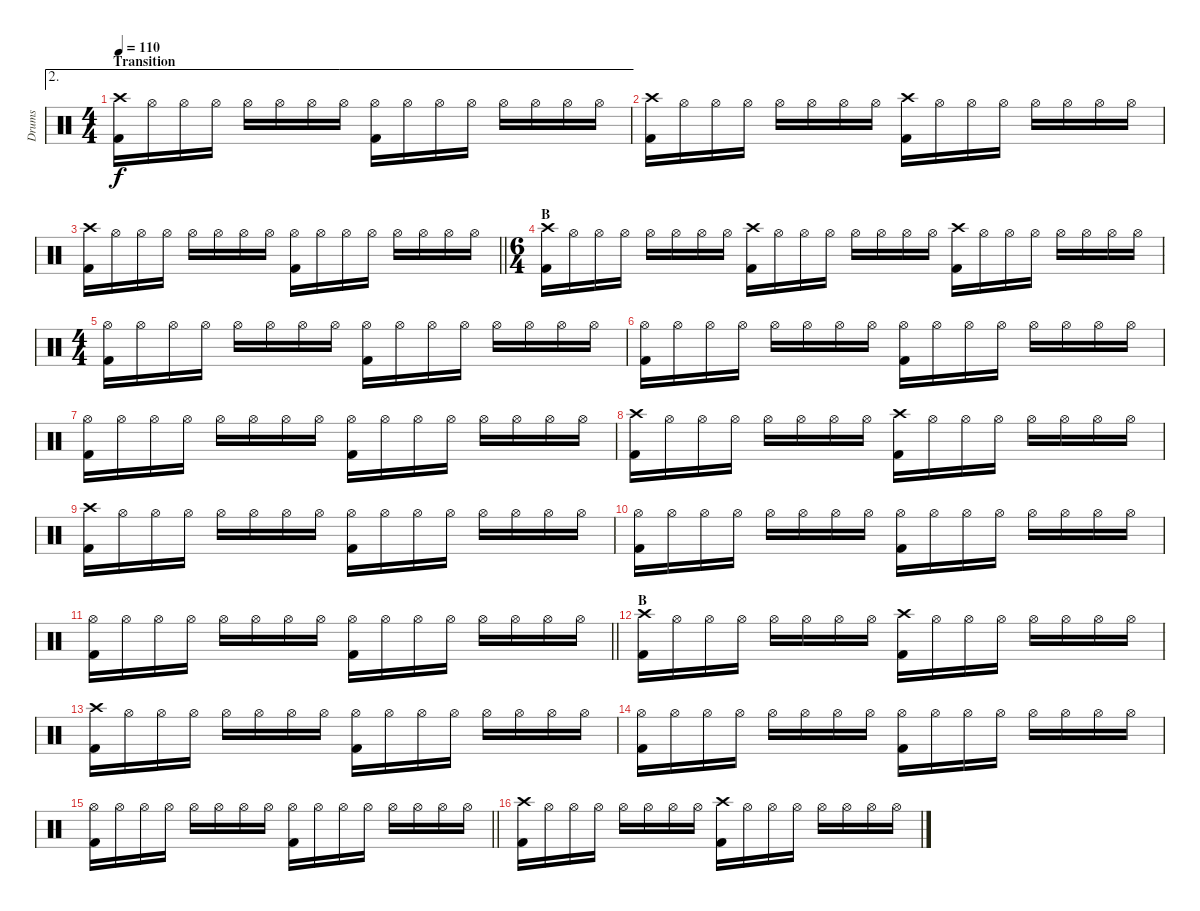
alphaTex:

\track ("Drums" "Drums") {instrument percussion}
\staff {score}
\articulation defaults
\ae 2
\ts (4 4)
\section ("" "Transition")
\tempo 110
\clef neutral
\ks c
("Crash high (hit)" "Kick (hit) 2").16{dy f} "Hi-Hat (open)".16 "Hi-Hat (open)".16 "Hi-Hat (open)".16 "Hi-Hat (open)".16 "Hi-Hat (open)".16 "Hi-Hat (open)".16 "Hi-Hat (open)".16 ("Hi-Hat (open)" "Kick (hit) 2").16 "Hi-Hat (open)".16 "Hi-Hat (open)".16 "Hi-Hat (open)".16 "Hi-Hat (open)".16 "Hi-Hat (open)".16 "Hi-Hat (open)".16 "Hi-Hat (open)".16 |
("Crash high (hit)" "Kick (hit) 2").16 "Hi-Hat (open)".16 "Hi-Hat (open)".16 "Hi-Hat (open)".16 "Hi-Hat (open)".16 "Hi-Hat (open)".16 "Hi-Hat (open)".16 "Hi-Hat (open)".16 ("Crash high (hit)" "Kick (hit) 2").16 "Hi-Hat (open)".16 "Hi-Hat (open)".16 "Hi-Hat (open)".16 "Hi-Hat (open)".16 "Hi-Hat (open)".16 "Hi-Hat (open)".16 "Hi-Hat (open)".16 |
\barLineRight lightlight
("Crash high (hit)" "Kick (hit) 2").16 "Hi-Hat (open)".16 "Hi-Hat (open)".16 "Hi-Hat (open)".16 "Hi-Hat (open)".16 "Hi-Hat (open)".16 "Hi-Hat (open)".16 "Hi-Hat (open)".16 ("Hi-Hat (open)" "Kick (hit) 2").16 "Hi-Hat (open)".16 "Hi-Hat (open)".16 "Hi-Hat (open)".16 "Hi-Hat (open)".16 "Hi-Hat (open)".16 "Hi-Hat (open)".16 "Hi-Hat (open)".16 |
\ts (6 4)
\section ("" "B")
("Crash high (hit)" "Kick (hit) 2").16 "Hi-Hat (open)".16 "Hi-Hat (open)".16 "Hi-Hat (open)".16 "Hi-Hat (open)".16 "Hi-Hat (open)".16 "Hi-Hat (open)".16 "Hi-Hat (open)".16 ("Crash high (hit)" "Kick (hit) 2").16 "Hi-Hat (open)".16 "Hi-Hat (open)".16 "Hi-Hat (open)".16 "Hi-Hat (open)".16 "Hi-Hat (open)".16 "Hi-Hat (open)".16 "Hi-Hat (open)".16 ("Crash high (hit)" "Kick (hit) 2").16 "Hi-Hat (open)".16 "Hi-Hat (open)".16 "Hi-Hat (open)".16 "Hi-Hat (open)".16 "Hi-Hat (open)".16 "Hi-Hat (open)".16 "Hi-Hat (open)".16 |
\ts (4 4)
("Hi-Hat (open)" "Kick (hit) 2").16 "Hi-Hat (open)".16 "Hi-Hat (open)".16 "Hi-Hat (open)".16 "Hi-Hat (open)".16 "Hi-Hat (open)".16 "Hi-Hat (open)".16 "Hi-Hat (open)".16 ("Hi-Hat (open)" "Kick (hit) 2").16 "Hi-Hat (open)".16 "Hi-Hat (open)".16 "Hi-Hat (open)".16 "Hi-Hat (open)".16 "Hi-Hat (open)".16 "Hi-Hat (open)".16 "Hi-Hat (open)".16 |
("Hi-Hat (open)" "Kick (hit) 2").16 "Hi-Hat (open)".16 "Hi-Hat (open)".16 "Hi-Hat (open)".16 "Hi-Hat (open)".16 "Hi-Hat (open)".16 "Hi-Hat (open)".16 "Hi-Hat (open)".16 ("Hi-Hat (open)" "Kick (hit) 2").16 "Hi-Hat (open)".16 "Hi-Hat (open)".16 "Hi-Hat (open)".16 "Hi-Hat (open)".16 "Hi-Hat (open)".16 "Hi-Hat (open)".16 "Hi-Hat (open)".16 |
("Hi-Hat (open)" "Kick (hit) 2").16 "Hi-Hat (open)".16 "Hi-Hat (open)".16 "Hi-Hat (open)".16 "Hi-Hat (open)".16 "Hi-Hat (open)".16 "Hi-Hat (open)".16 "Hi-Hat (open)".16 ("Hi-Hat (open)" "Kick (hit) 2").16 "Hi-Hat (open)".16 "Hi-Hat (open)".16 "Hi-Hat (open)".16 "Hi-Hat (open)".16 "Hi-Hat (open)".16 "Hi-Hat (open)".16 "Hi-Hat (open)".16 |
("Crash high (hit)" "Kick (hit) 2").16 "Hi-Hat (open)".16 "Hi-Hat (open)".16 "Hi-Hat (open)".16 "Hi-Hat (open)".16 "Hi-Hat (open)".16 "Hi-Hat (open)".16 "Hi-Hat (open)".16 ("Crash high (hit)" "Kick (hit) 2").16 "Hi-Hat (open)".16 "Hi-Hat (open)".16 "Hi-Hat (open)".16 "Hi-Hat (open)".16 "Hi-Hat (open)".16 "Hi-Hat (open)".16 "Hi-Hat (open)".16 |
("Crash high (hit)" "Kick (hit) 2").16 "Hi-Hat (open)".16 "Hi-Hat (open)".16 "Hi-Hat (open)".16 "Hi-Hat (open)".16 "Hi-Hat (open)".16 "Hi-Hat (open)".16 "Hi-Hat (open)".16 ("Hi-Hat (open)" "Kick (hit) 2").16 "Hi-Hat (open)".16 "Hi-Hat (open)".16 "Hi-Hat (open)".16 "Hi-Hat (open)".16 "Hi-Hat (open)".16 "Hi-Hat (open)".16 "Hi-Hat (open)".16 |
("Hi-Hat (open)" "Kick (hit) 2").16 "Hi-Hat (open)".16 "Hi-Hat (open)".16 "Hi-Hat (open)".16 "Hi-Hat (open)".16 "Hi-Hat (open)".16 "Hi-Hat (open)".16 "Hi-Hat (open)".16 ("Hi-Hat (open)" "Kick (hit) 2").16 "Hi-Hat (open)".16 "Hi-Hat (open)".16 "Hi-Hat (open)".16 "Hi-Hat (open)".16 "Hi-Hat (open)".16 "Hi-Hat (open)".16 "Hi-Hat (open)".16 |
\barLineRight lightlight
("Hi-Hat (open)" "Kick (hit) 2").16 "Hi-Hat (open)".16 "Hi-Hat (open)".16 "Hi-Hat (open)".16 "Hi-Hat (open)".16 "Hi-Hat (open)".16 "Hi-Hat (open)".16 "Hi-Hat (open)".16 ("Hi-Hat (open)" "Kick (hit) 2").16 "Hi-Hat (open)".16 "Hi-Hat (open)".16 "Hi-Hat (open)".16 "Hi-Hat (open)".16 "Hi-Hat (open)".16 "Hi-Hat (open)".16 "Hi-Hat (open)".16 |
\section ("" "B")
("Crash high (hit)" "Kick (hit) 2").16 "Hi-Hat (open)".16 "Hi-Hat (open)".16 "Hi-Hat (open)".16 "Hi-Hat (open)".16 "Hi-Hat (open)".16 "Hi-Hat (open)".16 "Hi-Hat (open)".16 ("Crash high (hit)" "Kick (hit) 2").16 "Hi-Hat (open)".16 "Hi-Hat (open)".16 "Hi-Hat (open)".16 "Hi-Hat (open)".16 "Hi-Hat (open)".16 "Hi-Hat (open)".16 "Hi-Hat (open)".16 |
("Crash high (hit)" "Kick (hit) 2").16 "Hi-Hat (open)".16 "Hi-Hat (open)".16 "Hi-Hat (open)".16 "Hi-Hat (open)".16 "Hi-Hat (open)".16 "Hi-Hat (open)".16 "Hi-Hat (open)".16 ("Hi-Hat (open)" "Kick (hit) 2").16 "Hi-Hat (open)".16 "Hi-Hat (open)".16 "Hi-Hat (open)".16 "Hi-Hat (open)".16 "Hi-Hat (open)".16 "Hi-Hat (open)".16 "Hi-Hat (open)".16 |
("Hi-Hat (open)" "Kick (hit) 2").16 "Hi-Hat (open)".16 "Hi-Hat (open)".16 "Hi-Hat (open)".16 "Hi-Hat (open)".16 "Hi-Hat (open)".16 "Hi-Hat (open)".16 "Hi-Hat (open)".16 ("Hi-Hat (open)" "Kick (hit) 2").16 "Hi-Hat (open)".16 "Hi-Hat (open)".16 "Hi-Hat (open)".16 "Hi-Hat (open)".16 "Hi-Hat (open)".16 "Hi-Hat (open)".16 "Hi-Hat (open)".16 |
\barLineRight lightlight
("Hi-Hat (open)" "Kick (hit) 2").16 "Hi-Hat (open)".16 "Hi-Hat (open)".16 "Hi-Hat (open)".16 "Hi-Hat (open)".16 "Hi-Hat (open)".16 "Hi-Hat (open)".16 "Hi-Hat (open)".16 ("Hi-Hat (open)" "Kick (hit) 2").16 "Hi-Hat (open)".16 "Hi-Hat (open)".16 "Hi-Hat (open)".16 "Hi-Hat (open)".16 "Hi-Hat (open)".16 "Hi-Hat (open)".16 "Hi-Hat (open)".16 |
("Crash high (hit)" "Kick (hit) 2").16 "Hi-Hat (open)".16 "Hi-Hat (open)".16 "Hi-Hat (open)".16 "Hi-Hat (open)".16 "Hi-Hat (open)".16 "Hi-Hat (open)".16 "Hi-Hat (open)".16 ("Crash high (hit)" "Kick (hit) 2").16 "Hi-Hat (open)".16 "Hi-Hat (open)".16 "Hi-Hat (open)".16 "Hi-Hat (open)".16 "Hi-Hat (open)".16 "Hi-Hat (open)".16 "Hi-Hat (open)".16
